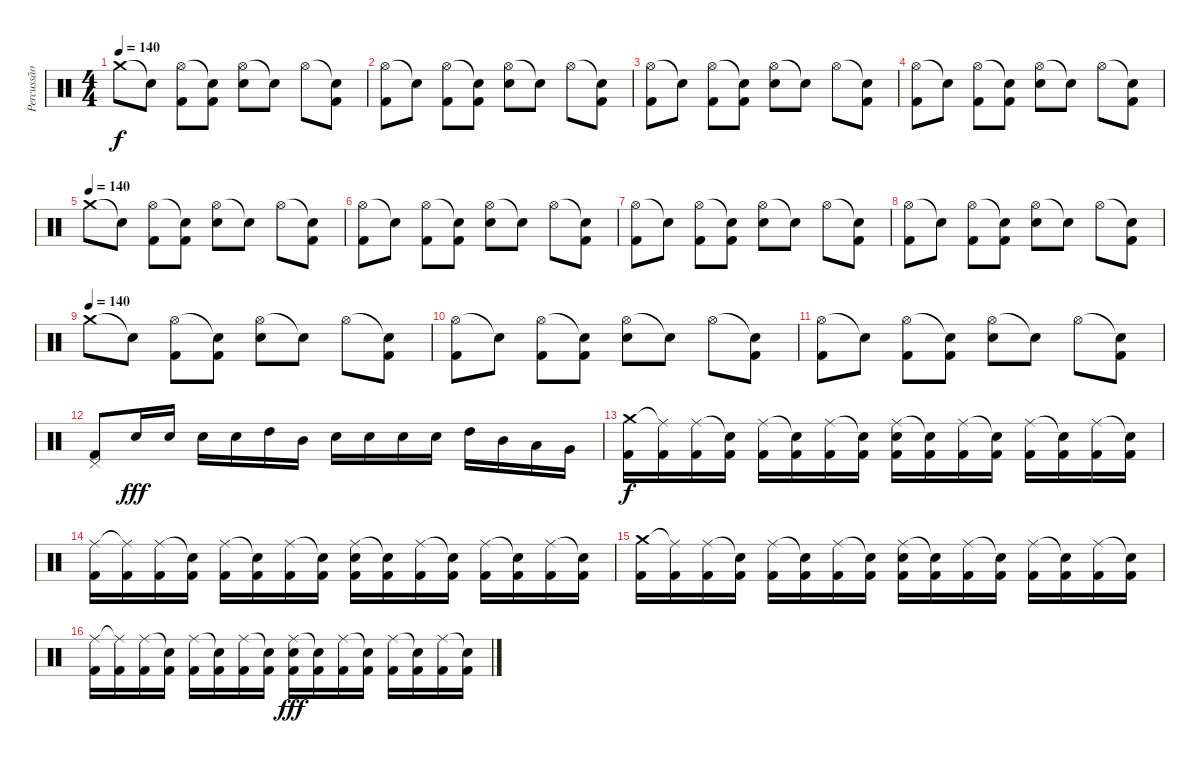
\track ("Percussão" "Percussão") {instrument percussion}
\staff {score}
\articulation defaults
\ts (4 4)
\tempo 140
\clef neutral
\ks c "Crash medium (hit)".8{dy f} "Snare (hit)"{t}.8
("Hi-Hat (open)" "Kick (hit) 2").8 ("Snare (hit)"{t} "Kick (hit) 2").8 ("Hi-Hat (open)" "Electric Snare (hit)").8 "Snare (hit)"{t}.8 "Hi-Hat (open)".8 ("Snare (hit)"{t} "Kick (hit) 2").8 |
("Hi-Hat (open)" "Kick (hit) 2").8 "Snare (hit)"{t}.8 ("Hi-Hat (open)" "Kick (hit) 2").8 ("Snare (hit)"{t} "Kick (hit) 2").8 ("Hi-Hat (open)" "Electric Snare (hit)").8 "Snare (hit)"{t}.8 "Hi-Hat (open)".8 ("Snare (hit)"{t} "Kick (hit) 2").8 |
("Hi-Hat (open)" "Kick (hit) 2").8 "Snare (hit)"{t}.8 ("Hi-Hat (open)" "Kick (hit) 2").8 ("Snare (hit)"{t} "Kick (hit) 2").8 ("Hi-Hat (open)" "Electric Snare (hit)").8 "Snare (hit)"{t}.8 "Hi-Hat (open)".8 ("Snare (hit)"{t} "Kick (hit) 2").8 |
("Hi-Hat (open)" "Kick (hit) 2").8 "Snare (hit)"{t}.8 ("Hi-Hat (open)" "Kick (hit) 2").8 ("Snare (hit)"{t} "Kick (hit) 2").8 ("Hi-Hat (open)" "Electric Snare (hit)").8 "Snare (hit)"{t}.8 "Hi-Hat (open)".8 ("Snare (hit)"{t} "Kick (hit) 2").8 |
\tempo (140)
"Crash medium (hit)".8 "Snare (hit)"{t}.8 ("Hi-Hat (open)" "Kick (hit) 2").8 ("Snare (hit)"{t} "Kick (hit) 2").8 ("Hi-Hat (open)" "Electric Snare (hit)").8 "Snare (hit)"{t}.8 "Hi-Hat (open)".8 ("Snare (hit)"{t} "Kick (hit) 2").8 |
("Hi-Hat (open)" "Kick (hit) 2").8 "Snare (hit)"{t}.8 ("Hi-Hat (open)" "Kick (hit) 2").8 ("Snare (hit)"{t} "Kick (hit) 2").8 ("Hi-Hat (open)" "Electric Snare (hit)").8 "Snare (hit)"{t}.8 "Hi-Hat (open)".8 ("Snare (hit)"{t} "Kick (hit) 2").8 |
("Hi-Hat (open)" "Kick (hit) 2").8 "Snare (hit)"{t}.8 ("Hi-Hat (open)" "Kick (hit) 2").8 ("Snare (hit)"{t} "Kick (hit) 2").8 ("Hi-Hat (open)" "Electric Snare (hit)").8 "Snare (hit)"{t}.8 "Hi-Hat (open)".8 ("Snare (hit)"{t} "Kick (hit) 2").8 |
("Hi-Hat (open)" "Kick (hit) 2").8 "Snare (hit)"{t}.8 ("Hi-Hat (open)" "Kick (hit) 2").8 ("Snare (hit)"{t} "Kick (hit) 2").8 ("Hi-Hat (open)" "Electric Snare (hit)").8 "Snare (hit)"{t}.8 "Hi-Hat (open)".8 ("Snare (hit)"{t} "Kick (hit) 2").8 |
\tempo (140)
"Crash medium (hit)".8 "Snare (hit)"{t}.8 ("Hi-Hat (open)" "Kick (hit) 2").8 ("Snare (hit)"{t} "Kick (hit) 2").8 ("Hi-Hat (open)" "Electric Snare (hit)").8 "Snare (hit)"{t}.8 "Hi-Hat (open)".8 ("Snare (hit)"{t} "Kick (hit) 2").8 |
("Hi-Hat (open)" "Kick (hit) 2").8 "Snare (hit)"{t}.8 ("Hi-Hat (open)" "Kick (hit) 2").8 ("Snare (hit)"{t} "Kick (hit) 2").8 ("Hi-Hat (open)" "Electric Snare (hit)").8 "Snare (hit)"{t}.8 "Hi-Hat (open)".8 ("Snare (hit)"{t} "Kick (hit) 2").8 |
("Hi-Hat (open)" "Kick (hit) 2").8 "Snare (hit)"{t}.8 ("Hi-Hat (open)" "Kick (hit) 2").8 ("Snare (hit)"{t} "Kick (hit) 2").8 ("Hi-Hat (open)" "Electric Snare (hit)").8 "Snare (hit)"{t}.8 "Hi-Hat (open)".8 ("Snare (hit)"{t} "Kick (hit) 2").8 |
("Pedal Hi-Hat (hit)" "Kick (hit) 2").8 "Electric Snare (hit)".16{dy fff} "Electric Snare (hit)".16 "Electric Snare (hit)".16 "Electric Snare (hit)".16 "High Tom (hit)".16 "Mid Tom (hit)".16 "Electric Snare (hit)".16 "Electric Snare (hit)".16 "Electric Snare (hit)".16 "Electric Snare (hit)".16 "High Tom (hit)".16 "Mid Tom (hit)".16 "Low Tom (hit)".16 "Very Low Tom (hit)".16 |
("Crash medium (hit)" "Kick (hit) 2").16{dy f} ("Ride (middle)"{t} "Kick (hit) 2").16 ("Ride (middle)" "Kick (hit) 2").16 ("Snare (hit)"{t} "Kick (hit) 2").16 ("Ride (middle)" "Kick (hit) 2").16 ("Snare (hit)"{t} "Kick (hit) 2").16 ("Ride (middle)" "Kick (hit) 2").16 ("Snare (hit)"{t} "Kick (hit) 2").16 ("Ride (middle)" "Electric Snare (hit)" "Kick (hit) 2").16 ("Snare (hit)"{t} "Kick (hit) 2").16 ("Ride (middle)" "Kick (hit) 2").16 ("Snare (hit)"{t} "Kick (hit) 2").16 ("Ride (middle)" "Kick (hit) 2").16 ("Snare (hit)"{t} "Kick (hit) 2").16 ("Ride (middle)" "Kick (hit) 2").16 ("Snare (hit)"{t} "Kick (hit) 2").16 |
("Ride (middle)" "Kick (hit) 2").16 ("Ride (middle)"{t} "Kick (hit) 2").16 ("Ride (middle)" "Kick (hit) 2").16 ("Snare (hit)"{t} "Kick (hit) 2").16 ("Ride (middle)" "Kick (hit) 2").16 ("Snare (hit)"{t} "Kick (hit) 2").16 ("Ride (middle)" "Kick (hit) 2").16 ("Snare (hit)"{t} "Kick (hit) 2").16 ("Ride (middle)" "Electric Snare (hit)" "Kick (hit) 2").16 ("Snare (hit)"{t} "Kick (hit) 2").16 ("Ride (middle)" "Kick (hit) 2").16 ("Snare (hit)"{t} "Kick (hit) 2").16 ("Ride (middle)" "Kick (hit) 2").16 ("Snare (hit)"{t} "Kick (hit) 2").16 ("Ride (middle)" "Kick (hit) 2").16 ("Snare (hit)"{t} "Kick (hit) 2").16 |
("Crash medium (hit)" "Kick (hit) 2").16 ("Ride (middle)"{t} "Kick (hit) 2").16 ("Ride (middle)" "Kick (hit) 2").16 ("Snare (hit)"{t} "Kick (hit) 2").16 ("Ride (middle)" "Kick (hit) 2").16 ("Snare (hit)"{t} "Kick (hit) 2").16 ("Ride (middle)" "Kick (hit) 2").16 ("Snare (hit)"{t} "Kick (hit) 2").16 ("Ride (middle)" "Electric Snare (hit)" "Kick (hit) 2").16 ("Snare (hit)"{t} "Kick (hit) 2").16 ("Ride (middle)" "Kick (hit) 2").16 ("Snare (hit)"{t} "Kick (hit) 2").16 ("Ride (middle)" "Kick (hit) 2").16 ("Snare (hit)"{t} "Kick (hit) 2").16 ("Ride (middle)" "Kick (hit) 2").16 ("Snare (hit)"{t} "Kick (hit) 2").16 |
("Ride (middle)" "Kick (hit) 2").16 ("Ride (middle)"{t} "Kick (hit) 2").16 ("Ride (middle)" "Kick (hit) 2").16 ("Snare (hit)"{t} "Kick (hit) 2").16 ("Ride (middle)" "Kick (hit) 2").16 ("Snare (hit)"{t} "Kick (hit) 2").16 ("Ride (middle)" "Kick (hit) 2").16 ("Snare (hit)"{t} "Kick (hit) 2").16 ("Ride (middle)" "Electric Snare (hit)" "Kick (hit) 2").16{dy fff} ("Snare (hit)"{t} "Kick (hit) 2").16 ("Ride (middle)" "Kick (hit) 2").16 ("Snare (hit)"{t} "Kick (hit) 2").16 ("Ride (middle)" "Kick (hit) 2").16 ("Snare (hit)"{t} "Kick (hit) 2").16 ("Ride (middle)" "Kick (hit) 2").16 ("Snare (hit)"{t} "Kick (hit) 2").16
